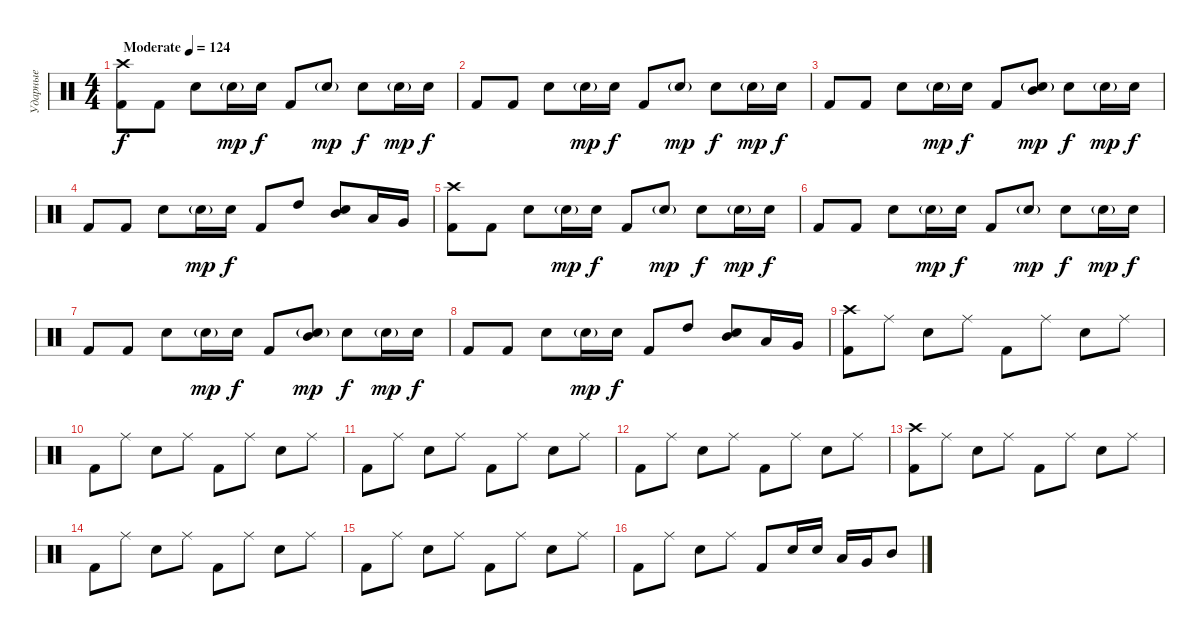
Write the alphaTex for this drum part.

\track ("Ударные" "Ударные") {instrument percussion}
\staff {score}
\articulation defaults
\ts (4 4)
\tempo (124 "Moderate")
\clef neutral
\ks c
("Crash high (hit)" "Kick (hit) 2").8{dy f} "Kick (hit) 2".8 "Electric Snare (hit)".8 "Electric Snare (hit)"{g}.16{dy mp} "Electric Snare (hit)".16{dy f} "Kick (hit) 2".8 "Electric Snare (hit)"{g}.8{dy mp} "Electric Snare (hit)".8{dy f} "Electric Snare (hit)"{g}.16{dy mp} "Electric Snare (hit)".16{dy f} |
"Kick (hit) 2".8 "Kick (hit) 2".8 "Electric Snare (hit)".8 "Electric Snare (hit)"{g}.16{dy mp} "Electric Snare (hit)".16{dy f} "Kick (hit) 2".8 "Electric Snare (hit)"{g}.8{dy mp} "Electric Snare (hit)".8{dy f} "Electric Snare (hit)"{g}.16{dy mp} "Electric Snare (hit)".16{dy f} |
"Kick (hit) 2".8 "Kick (hit) 2".8 "Electric Snare (hit)".8 "Electric Snare (hit)"{g}.16{dy mp} "Electric Snare (hit)".16{dy f} "Kick (hit) 2".8 ("Mid Tom (hit)" "Electric Snare (hit)"{g}).8{dy mp} "Electric Snare (hit)".8{dy f} "Electric Snare (hit)"{g}.16{dy mp} "Electric Snare (hit)".16{dy f} |
"Kick (hit) 2".8 "Kick (hit) 2".8 "Electric Snare (hit)".8 "Electric Snare (hit)"{g}.16{dy mp} "Electric Snare (hit)".16{dy f} "Kick (hit) 2".8 "High Tom (hit)".8 ("Mid Tom (hit)" "Electric Snare (hit)").8 "Low Tom (hit)".16 "Very Low Tom (hit)".16 |
("Crash high (hit)" "Kick (hit) 2").8 "Kick (hit) 2".8 "Electric Snare (hit)".8 "Electric Snare (hit)"{g}.16{dy mp} "Electric Snare (hit)".16{dy f} "Kick (hit) 2".8 "Electric Snare (hit)"{g}.8{dy mp} "Electric Snare (hit)".8{dy f} "Electric Snare (hit)"{g}.16{dy mp} "Electric Snare (hit)".16{dy f} |
"Kick (hit) 2".8 "Kick (hit) 2".8 "Electric Snare (hit)".8 "Electric Snare (hit)"{g}.16{dy mp} "Electric Snare (hit)".16{dy f} "Kick (hit) 2".8 "Electric Snare (hit)"{g}.8{dy mp} "Electric Snare (hit)".8{dy f} "Electric Snare (hit)"{g}.16{dy mp} "Electric Snare (hit)".16{dy f} |
"Kick (hit) 2".8 "Kick (hit) 2".8 "Electric Snare (hit)".8 "Electric Snare (hit)"{g}.16{dy mp} "Electric Snare (hit)".16{dy f} "Kick (hit) 2".8 ("Mid Tom (hit)" "Electric Snare (hit)"{g}).8{dy mp} "Electric Snare (hit)".8{dy f} "Electric Snare (hit)"{g}.16{dy mp} "Electric Snare (hit)".16{dy f} |
"Kick (hit) 2".8 "Kick (hit) 2".8 "Electric Snare (hit)".8 "Electric Snare (hit)"{g}.16{dy mp} "Electric Snare (hit)".16{dy f} "Kick (hit) 2".8 "High Tom (hit)".8 ("Mid Tom (hit)" "Electric Snare (hit)").8 "Low Tom (hit)".16 "Very Low Tom (hit)".16 |
("Crash high (hit)" "Kick (hit) 2").8 "Ride (middle)".8 "Electric Snare (hit)".8 "Ride (middle)".8 "Kick (hit) 2".8 "Ride (middle)".8 "Electric Snare (hit)".8 "Ride (middle)".8 |
"Kick (hit) 2".8 "Ride (middle)".8 "Electric Snare (hit)".8 "Ride (middle)".8 "Kick (hit) 2".8 "Ride (middle)".8 "Electric Snare (hit)".8 "Ride (middle)".8 |
"Kick (hit) 2".8 "Ride (middle)".8 "Electric Snare (hit)".8 "Ride (middle)".8 "Kick (hit) 2".8 "Ride (middle)".8 "Electric Snare (hit)".8 "Ride (middle)".8 |
"Kick (hit) 2".8 "Ride (middle)".8 "Electric Snare (hit)".8 "Ride (middle)".8 "Kick (hit) 2".8 "Ride (middle)".8 "Electric Snare (hit)".8 "Ride (middle)".8 |
("Crash high (hit)" "Kick (hit) 2").8 "Ride (middle)".8 "Electric Snare (hit)".8 "Ride (middle)".8 "Kick (hit) 2".8 "Ride (middle)".8 "Electric Snare (hit)".8 "Ride (middle)".8 |
"Kick (hit) 2".8 "Ride (middle)".8 "Electric Snare (hit)".8 "Ride (middle)".8 "Kick (hit) 2".8 "Ride (middle)".8 "Electric Snare (hit)".8 "Ride (middle)".8 |
"Kick (hit) 2".8 "Ride (middle)".8 "Electric Snare (hit)".8 "Ride (middle)".8 "Kick (hit) 2".8 "Ride (middle)".8 "Electric Snare (hit)".8 "Ride (middle)".8 |
"Kick (hit) 2".8 "Ride (middle)".8 "Electric Snare (hit)".8 "Ride (middle)".8 "Kick (hit) 2".8 "Electric Snare (hit)".16 "Electric Snare (hit)".16 "Low Tom (hit)".16 "Very Low Tom (hit)".16 "Mid Tom (hit)".8
